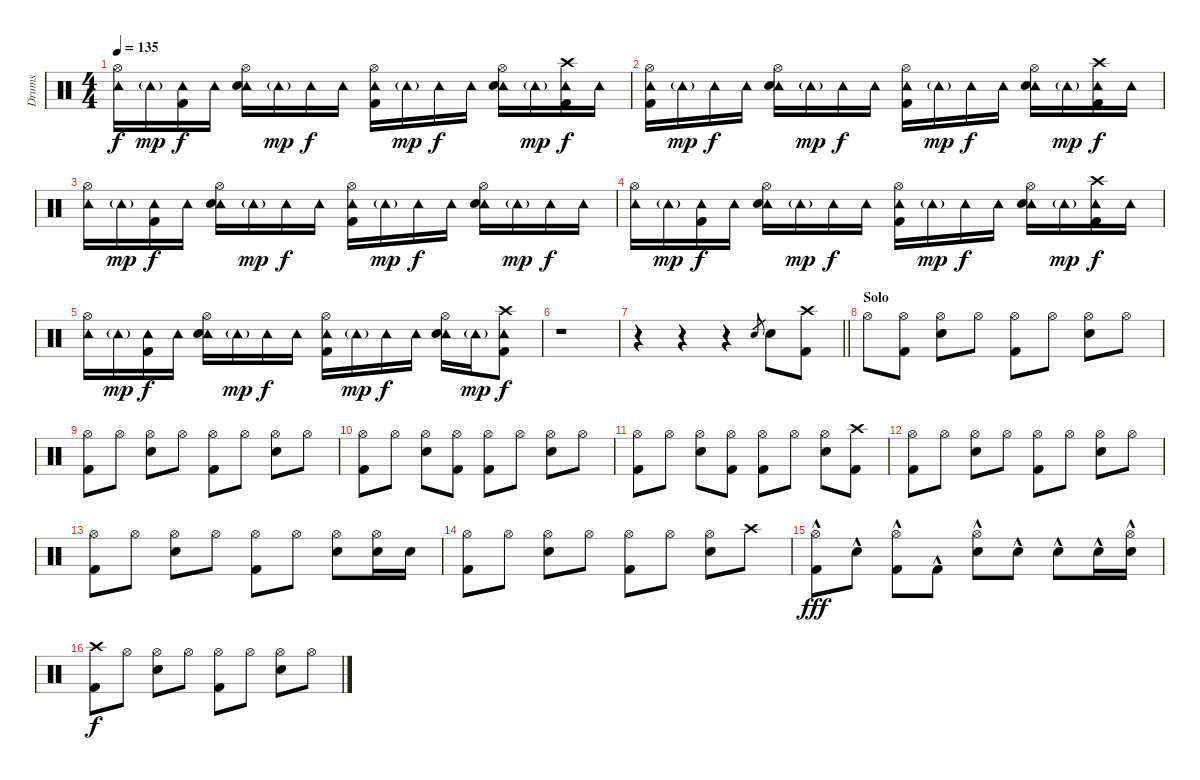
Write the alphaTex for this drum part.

\track ("Drums" "Drums") {instrument percussion}
\staff {score}
\articulation defaults
\ts (4 4)
\tempo 135
\clef neutral
\ks c
("Hi-Hat (open)" "Tambourine (hit)").16{dy f} "Tambourine (hit)"{g}.16{dy mp} ("Tambourine (hit)" "Kick (hit) 2").16{dy f} "Tambourine (hit)".16 ("Hi-Hat (open)" "Tambourine (hit)" "Electric Snare (hit)").16 "Tambourine (hit)"{g}.16{dy mp} "Tambourine (hit)".16{dy f} "Tambourine (hit)".16 ("Hi-Hat (open)" "Tambourine (hit)" "Kick (hit) 2").16 "Tambourine (hit)"{g}.16{dy mp} "Tambourine (hit)".16{dy f} "Tambourine (hit)".16 ("Hi-Hat (open)" "Tambourine (hit)" "Electric Snare (hit)").16 "Tambourine (hit)"{g}.16{dy mp} ("Tambourine (hit)" "Crash high (hit)" "Kick (hit) 2").16{dy f} "Tambourine (hit)".16 |
("Hi-Hat (open)" "Tambourine (hit)" "Kick (hit) 2").16 "Tambourine (hit)"{g}.16{dy mp} "Tambourine (hit)".16{dy f} "Tambourine (hit)".16 ("Hi-Hat (open)" "Tambourine (hit)" "Electric Snare (hit)").16 "Tambourine (hit)"{g}.16{dy mp} "Tambourine (hit)".16{dy f} "Tambourine (hit)".16 ("Hi-Hat (open)" "Tambourine (hit)" "Kick (hit) 2").16 "Tambourine (hit)"{g}.16{dy mp} "Tambourine (hit)".16{dy f} "Tambourine (hit)".16 ("Hi-Hat (open)" "Tambourine (hit)" "Electric Snare (hit)").16 "Tambourine (hit)"{g}.16{dy mp} ("Tambourine (hit)" "Crash high (hit)" "Kick (hit) 2").16{dy f} "Tambourine (hit)".16 |
("Hi-Hat (open)" "Tambourine (hit)").16 "Tambourine (hit)"{g}.16{dy mp} ("Tambourine (hit)" "Kick (hit) 2").16{dy f} "Tambourine (hit)".16 ("Hi-Hat (open)" "Tambourine (hit)" "Electric Snare (hit)").16 "Tambourine (hit)"{g}.16{dy mp} "Tambourine (hit)".16{dy f} "Tambourine (hit)".16 ("Hi-Hat (open)" "Tambourine (hit)" "Kick (hit) 2").16 "Tambourine (hit)"{g}.16{dy mp} "Tambourine (hit)".16{dy f} "Tambourine (hit)".16 ("Hi-Hat (open)" "Tambourine (hit)" "Electric Snare (hit)").16 "Tambourine (hit)"{g}.16{dy mp} "Tambourine (hit)".16{dy f} "Tambourine (hit)".16 |
("Hi-Hat (open)" "Tambourine (hit)").16 "Tambourine (hit)"{g}.16{dy mp} ("Tambourine (hit)" "Kick (hit) 2").16{dy f} "Tambourine (hit)".16 ("Hi-Hat (open)" "Tambourine (hit)" "Electric Snare (hit)").16 "Tambourine (hit)"{g}.16{dy mp} "Tambourine (hit)".16{dy f} "Tambourine (hit)".16 ("Hi-Hat (open)" "Tambourine (hit)" "Kick (hit) 2").16 "Tambourine (hit)"{g}.16{dy mp} "Tambourine (hit)".16{dy f} "Tambourine (hit)".16 ("Hi-Hat (open)" "Tambourine (hit)" "Electric Snare (hit)").16 "Tambourine (hit)"{g}.16{dy mp} ("Tambourine (hit)" "Crash high (hit)" "Kick (hit) 2").16{dy f} "Tambourine (hit)".16 |
("Hi-Hat (open)" "Tambourine (hit)").16 "Tambourine (hit)"{g}.16{dy mp} ("Tambourine (hit)" "Kick (hit) 2").16{dy f} "Tambourine (hit)".16 ("Hi-Hat (open)" "Tambourine (hit)" "Electric Snare (hit)").16 "Tambourine (hit)"{g}.16{dy mp} "Tambourine (hit)".16{dy f} "Tambourine (hit)".16 ("Hi-Hat (open)" "Tambourine (hit)" "Kick (hit) 2").16 "Tambourine (hit)"{g}.16{dy mp} "Tambourine (hit)".16{dy f} "Tambourine (hit)".16 ("Hi-Hat (open)" "Tambourine (hit)" "Electric Snare (hit)").16 "Tambourine (hit)"{g}.16{dy mp} ("Tambourine (hit)" "Crash high (hit)" "Kick (hit) 2").8{dy f} |
r.1 |
\barLineRight lightlight
r.4 r.4 r.4 "Electric Snare (hit)".8{gr} "Electric Snare (hit)".8 ("Crash high (hit)" "Kick (hit) 2").8 |
\section ("" "Solo")
"Hi-Hat (open)".8 ("Hi-Hat (open)" "Kick (hit) 2").8 ("Hi-Hat (open)" "Electric Snare (hit)").8 "Hi-Hat (open)".8 ("Hi-Hat (open)" "Kick (hit) 2").8 "Hi-Hat (open)".8 ("Hi-Hat (open)" "Electric Snare (hit)").8 "Hi-Hat (open)".8 |
("Hi-Hat (open)" "Kick (hit) 2").8 "Hi-Hat (open)".8 ("Hi-Hat (open)" "Electric Snare (hit)").8 "Hi-Hat (open)".8 ("Hi-Hat (open)" "Kick (hit) 2").8 "Hi-Hat (open)".8 ("Hi-Hat (open)" "Electric Snare (hit)").8 "Hi-Hat (open)".8 |
("Hi-Hat (open)" "Kick (hit) 2").8 "Hi-Hat (open)".8 ("Hi-Hat (open)" "Electric Snare (hit)").8 ("Hi-Hat (open)" "Kick (hit) 2").8 ("Hi-Hat (open)" "Kick (hit) 2").8 "Hi-Hat (open)".8 ("Hi-Hat (open)" "Electric Snare (hit)").8 "Hi-Hat (open)".8 |
("Hi-Hat (open)" "Kick (hit) 2").8 "Hi-Hat (open)".8 ("Hi-Hat (open)" "Electric Snare (hit)").8 ("Hi-Hat (open)" "Kick (hit) 2").8 ("Hi-Hat (open)" "Kick (hit) 2").8 "Hi-Hat (open)".8 ("Hi-Hat (open)" "Electric Snare (hit)").8 ("Crash high (hit)" "Kick (hit) 2").8 |
("Hi-Hat (open)" "Kick (hit) 2").8 "Hi-Hat (open)".8 ("Hi-Hat (open)" "Electric Snare (hit)").8 "Hi-Hat (open)".8 ("Hi-Hat (open)" "Kick (hit) 2").8 "Hi-Hat (open)".8 ("Hi-Hat (open)" "Electric Snare (hit)").8 "Hi-Hat (open)".8 |
("Hi-Hat (open)" "Kick (hit) 2").8 "Hi-Hat (open)".8 ("Hi-Hat (open)" "Electric Snare (hit)").8 "Hi-Hat (open)".8 ("Hi-Hat (open)" "Kick (hit) 2").8 "Hi-Hat (open)".8 ("Hi-Hat (open)" "Electric Snare (hit)").8 ("Hi-Hat (open)" "Electric Snare (hit)").16 "Electric Snare (hit)".16 |
("Hi-Hat (open)" "Kick (hit) 2").8 "Hi-Hat (open)".8 ("Hi-Hat (open)" "Electric Snare (hit)").8 "Hi-Hat (open)".8 ("Hi-Hat (open)" "Kick (hit) 2").8 "Hi-Hat (open)".8 ("Hi-Hat (open)" "Electric Snare (hit)").8 "Crash high (hit)".8 |
("Hi-Hat (open)" "Kick (hit) 2"{hac}).8{dy fff} "Electric Snare (hit)"{hac}.8 ("Hi-Hat (open)" "Kick (hit) 2"{hac}).8 "Kick (hit) 2"{hac}.8 ("Hi-Hat (open)" "Electric Snare (hit)"{hac}).8 "Electric Snare (hit)"{hac}.8 "Electric Snare (hit)"{hac}.8 "Electric Snare (hit)"{hac}.16 ("Hi-Hat (open)" "Electric Snare (hit)"{hac}).16 |
("Crash high (hit)" "Kick (hit) 2").8{dy f} "Hi-Hat (open)".8 ("Hi-Hat (open)" "Electric Snare (hit)").8 "Hi-Hat (open)".8 ("Hi-Hat (open)" "Kick (hit) 2").8 "Hi-Hat (open)".8 ("Hi-Hat (open)" "Electric Snare (hit)").8 "Hi-Hat (open)".8
